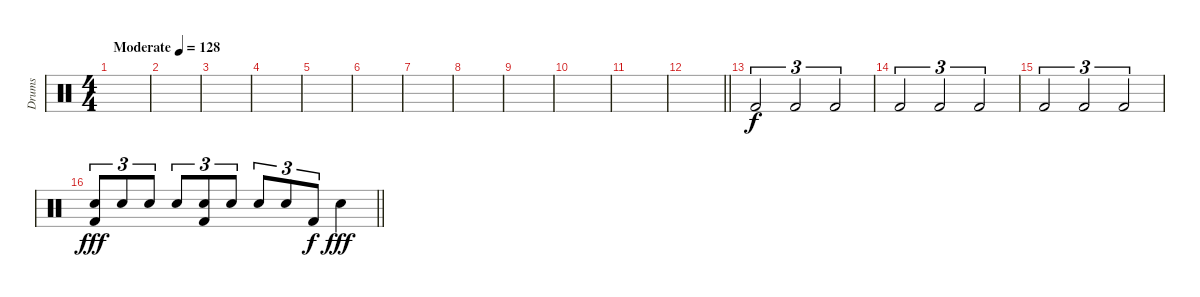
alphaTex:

\track ("Drums" "Drums") {instrument percussion}
\staff {score}
\articulation defaults
\ts (4 4)
\tempo (128 "Moderate")
\clef neutral
\ks c
|
|
|
|
|
|
|
|
|
|
|
\barLineRight lightlight
|
\section ("" "")
"Kick (hit) 2".2{tu (3 2)} "Kick (hit) 2".2{tu (3 2)} "Kick (hit) 2".2{tu (3 2)} |
"Kick (hit) 2".2{tu (3 2)} "Kick (hit) 2".2{tu (3 2)} "Kick (hit) 2".2{tu (3 2)} |
"Kick (hit) 2".2{tu (3 2)} "Kick (hit) 2".2{tu (3 2)} "Kick (hit) 2".2{tu (3 2)} |
\barLineRight lightlight
("Snare (hit) 2" "Kick (hit) 2").8{tu (3 2) dy fff} "Snare (hit) 2".8{tu (3 2)} "Snare (hit) 2".8{tu (3 2)} "Snare (hit) 2".8{tu (3 2)} ("Snare (hit) 2" "Kick (hit) 2").8{tu (3 2)} "Snare (hit) 2".8{tu (3 2)} "Snare (hit) 2".8{tu (3 2)} "Snare (hit) 2".8{tu (3 2)} "Kick (hit) 2".8{tu (3 2) dy f} "Snare (hit) 2".4{dy fff}
